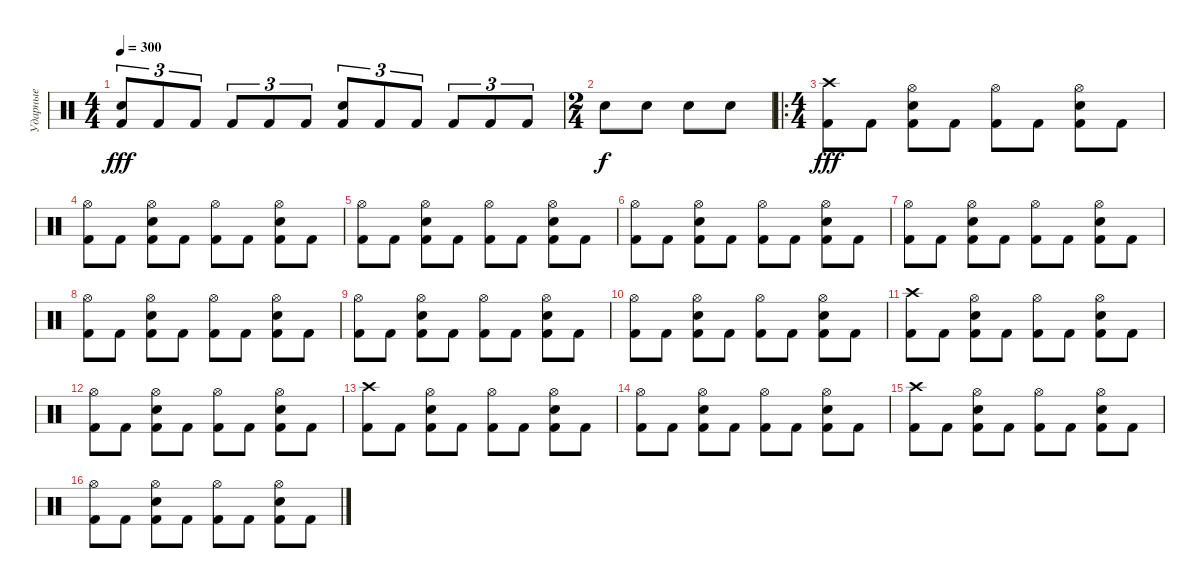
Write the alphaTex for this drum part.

\track ("Ударные" "Ударные") {instrument percussion}
\staff {score}
\articulation defaults
\ts (4 4)
\tempo 300
\clef neutral
\ks c
("Kick (hit) 2" "Electric Snare (hit)").8{tu (3 2) dy fff} "Kick (hit) 2".8{tu (3 2)} "Kick (hit) 2".8{tu (3 2)} "Kick (hit) 2".8{tu (3 2)} "Kick (hit) 2".8{tu (3 2)} "Kick (hit) 2".8{tu (3 2)} ("Kick (hit) 2" "Electric Snare (hit)").8{tu (3 2)} "Kick (hit) 2".8{tu (3 2)} "Kick (hit) 2".8{tu (3 2)} "Kick (hit) 2".8{tu (3 2)} "Kick (hit) 2".8{tu (3 2)} "Kick (hit) 2".8{tu (3 2)} |
\ts (2 4)
"Snare (hit) 2".8{dy f} "Snare (hit) 2".8 "Snare (hit) 2".8 "Snare (hit) 2".8 |
\ro
\ts (4 4)
("Kick (hit) 2" "Crash high (hit)").8{dy fff} "Kick (hit) 2".8 ("Kick (hit) 2" "Snare (hit) 2" "Hi-Hat (open)").8 "Kick (hit) 2".8 ("Kick (hit) 2" "Hi-Hat (open)").8 "Kick (hit) 2".8 ("Kick (hit) 2" "Snare (hit) 2" "Hi-Hat (open)").8 "Kick (hit) 2".8 |
("Kick (hit) 2" "Hi-Hat (open)").8 "Kick (hit) 2".8 ("Kick (hit) 2" "Snare (hit) 2" "Hi-Hat (open)").8 "Kick (hit) 2".8 ("Kick (hit) 2" "Hi-Hat (open)").8 "Kick (hit) 2".8 ("Kick (hit) 2" "Snare (hit) 2" "Hi-Hat (open)").8 "Kick (hit) 2".8 |
("Kick (hit) 2" "Hi-Hat (open)").8 "Kick (hit) 2".8 ("Kick (hit) 2" "Snare (hit) 2" "Hi-Hat (open)").8 "Kick (hit) 2".8 ("Kick (hit) 2" "Hi-Hat (open)").8 "Kick (hit) 2".8 ("Kick (hit) 2" "Snare (hit) 2" "Hi-Hat (open)").8 "Kick (hit) 2".8 |
("Kick (hit) 2" "Hi-Hat (open)").8 "Kick (hit) 2".8 ("Kick (hit) 2" "Snare (hit) 2" "Hi-Hat (open)").8 "Kick (hit) 2".8 ("Kick (hit) 2" "Hi-Hat (open)").8 "Kick (hit) 2".8 ("Kick (hit) 2" "Snare (hit) 2" "Hi-Hat (open)").8 "Kick (hit) 2".8 |
("Kick (hit) 2" "Hi-Hat (open)").8 "Kick (hit) 2".8 ("Kick (hit) 2" "Snare (hit) 2" "Hi-Hat (open)").8 "Kick (hit) 2".8 ("Kick (hit) 2" "Hi-Hat (open)").8 "Kick (hit) 2".8 ("Kick (hit) 2" "Snare (hit) 2" "Hi-Hat (open)").8 "Kick (hit) 2".8 |
("Kick (hit) 2" "Hi-Hat (open)").8 "Kick (hit) 2".8 ("Kick (hit) 2" "Snare (hit) 2" "Hi-Hat (open)").8 "Kick (hit) 2".8 ("Kick (hit) 2" "Hi-Hat (open)").8 "Kick (hit) 2".8 ("Kick (hit) 2" "Snare (hit) 2" "Hi-Hat (open)").8 "Kick (hit) 2".8 |
("Kick (hit) 2" "Hi-Hat (open)").8 "Kick (hit) 2".8 ("Kick (hit) 2" "Snare (hit) 2" "Hi-Hat (open)").8 "Kick (hit) 2".8 ("Kick (hit) 2" "Hi-Hat (open)").8 "Kick (hit) 2".8 ("Kick (hit) 2" "Snare (hit) 2" "Hi-Hat (open)").8 "Kick (hit) 2".8 |
("Kick (hit) 2" "Hi-Hat (open)").8 "Kick (hit) 2".8 ("Kick (hit) 2" "Snare (hit) 2" "Hi-Hat (open)").8 "Kick (hit) 2".8 ("Kick (hit) 2" "Hi-Hat (open)").8 "Kick (hit) 2".8 ("Kick (hit) 2" "Snare (hit) 2" "Hi-Hat (open)").8 "Kick (hit) 2".8 |
("Kick (hit) 2" "Crash high (hit)").8 "Kick (hit) 2".8 ("Kick (hit) 2" "Snare (hit) 2" "Hi-Hat (open)").8 "Kick (hit) 2".8 ("Kick (hit) 2" "Hi-Hat (open)").8 "Kick (hit) 2".8 ("Kick (hit) 2" "Snare (hit) 2" "Hi-Hat (open)").8 "Kick (hit) 2".8 |
("Kick (hit) 2" "Hi-Hat (open)").8 "Kick (hit) 2".8 ("Kick (hit) 2" "Snare (hit) 2" "Hi-Hat (open)").8 "Kick (hit) 2".8 ("Kick (hit) 2" "Hi-Hat (open)").8 "Kick (hit) 2".8 ("Kick (hit) 2" "Snare (hit) 2" "Hi-Hat (open)").8 "Kick (hit) 2".8 |
("Kick (hit) 2" "Crash high (hit)").8 "Kick (hit) 2".8 ("Kick (hit) 2" "Snare (hit) 2" "Hi-Hat (open)").8 "Kick (hit) 2".8 ("Kick (hit) 2" "Hi-Hat (open)").8 "Kick (hit) 2".8 ("Kick (hit) 2" "Snare (hit) 2" "Hi-Hat (open)").8 "Kick (hit) 2".8 |
("Kick (hit) 2" "Hi-Hat (open)").8 "Kick (hit) 2".8 ("Kick (hit) 2" "Snare (hit) 2" "Hi-Hat (open)").8 "Kick (hit) 2".8 ("Kick (hit) 2" "Hi-Hat (open)").8 "Kick (hit) 2".8 ("Kick (hit) 2" "Snare (hit) 2" "Hi-Hat (open)").8 "Kick (hit) 2".8 |
("Kick (hit) 2" "Crash high (hit)").8 "Kick (hit) 2".8 ("Kick (hit) 2" "Snare (hit) 2" "Hi-Hat (open)").8 "Kick (hit) 2".8 ("Kick (hit) 2" "Hi-Hat (open)").8 "Kick (hit) 2".8 ("Kick (hit) 2" "Snare (hit) 2" "Hi-Hat (open)").8 "Kick (hit) 2".8 |
("Kick (hit) 2" "Hi-Hat (open)").8 "Kick (hit) 2".8 ("Kick (hit) 2" "Snare (hit) 2" "Hi-Hat (open)").8 "Kick (hit) 2".8 ("Kick (hit) 2" "Hi-Hat (open)").8 "Kick (hit) 2".8 ("Kick (hit) 2" "Snare (hit) 2" "Hi-Hat (open)").8 "Kick (hit) 2".8
